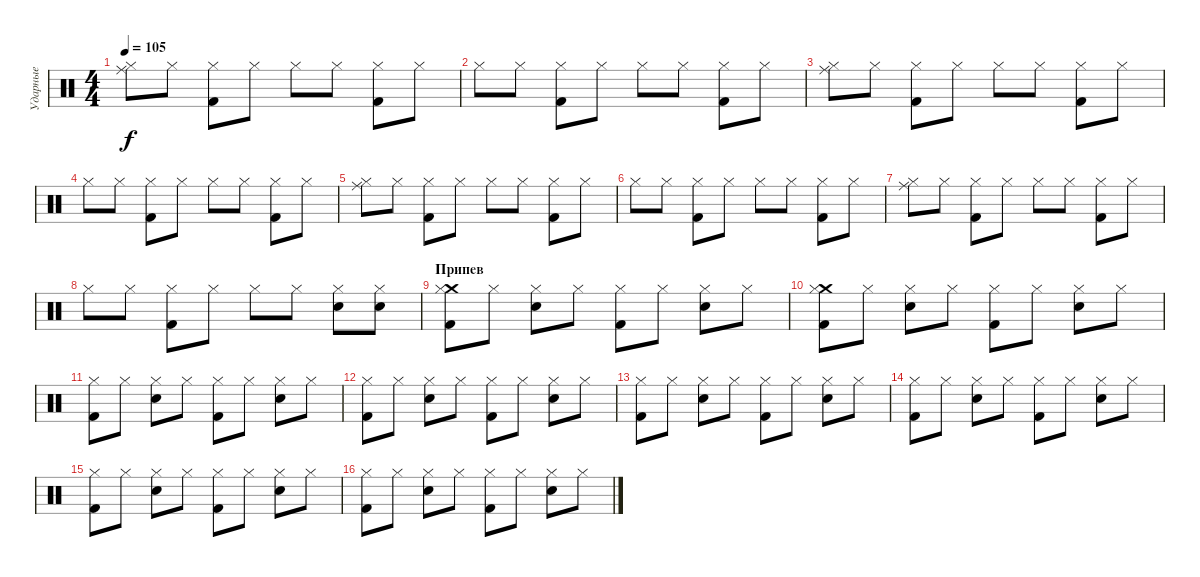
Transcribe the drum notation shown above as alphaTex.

\track ("Ударные" "Ударные") {instrument percussion}
\staff {score}
\articulation defaults
\ts (4 4)
\tempo 105
\clef neutral
\ks c
("Ride (middle)" "Hi-Hat (closed)").8{dy f} "Hi-Hat (closed)".8 ("Hi-Hat (closed)" "Kick (hit) 2").8 "Hi-Hat (closed)".8 "Hi-Hat (closed)".8 "Hi-Hat (closed)".8 ("Hi-Hat (closed)" "Kick (hit) 2").8 "Hi-Hat (closed)".8 |
"Hi-Hat (closed)".8 "Hi-Hat (closed)".8 ("Hi-Hat (closed)" "Kick (hit) 2").8 "Hi-Hat (closed)".8 "Hi-Hat (closed)".8 "Hi-Hat (closed)".8 ("Hi-Hat (closed)" "Kick (hit) 2").8 "Hi-Hat (closed)".8 |
("Ride (middle)" "Hi-Hat (closed)").8 "Hi-Hat (closed)".8 ("Hi-Hat (closed)" "Kick (hit) 2").8 "Hi-Hat (closed)".8 "Hi-Hat (closed)".8 "Hi-Hat (closed)".8 ("Hi-Hat (closed)" "Kick (hit) 2").8 "Hi-Hat (closed)".8 |
"Hi-Hat (closed)".8 "Hi-Hat (closed)".8 ("Hi-Hat (closed)" "Kick (hit) 2").8 "Hi-Hat (closed)".8 "Hi-Hat (closed)".8 "Hi-Hat (closed)".8 ("Hi-Hat (closed)" "Kick (hit) 2").8 "Hi-Hat (closed)".8 |
("Ride (middle)" "Hi-Hat (closed)").8 "Hi-Hat (closed)".8 ("Hi-Hat (closed)" "Kick (hit) 2").8 "Hi-Hat (closed)".8 "Hi-Hat (closed)".8 "Hi-Hat (closed)".8 ("Hi-Hat (closed)" "Kick (hit) 2").8 "Hi-Hat (closed)".8 |
"Hi-Hat (closed)".8 "Hi-Hat (closed)".8 ("Hi-Hat (closed)" "Kick (hit) 2").8 "Hi-Hat (closed)".8 "Hi-Hat (closed)".8 "Hi-Hat (closed)".8 ("Hi-Hat (closed)" "Kick (hit) 2").8 "Hi-Hat (closed)".8 |
("Ride (middle)" "Hi-Hat (closed)").8 "Hi-Hat (closed)".8 ("Hi-Hat (closed)" "Kick (hit) 2").8 "Hi-Hat (closed)".8 "Hi-Hat (closed)".8 "Hi-Hat (closed)".8 ("Hi-Hat (closed)" "Kick (hit) 2").8 "Hi-Hat (closed)".8 |
"Hi-Hat (closed)".8 "Hi-Hat (closed)".8 ("Hi-Hat (closed)" "Kick (hit) 2").8 "Hi-Hat (closed)".8 "Hi-Hat (closed)".8 "Hi-Hat (closed)".8 ("Hi-Hat (closed)" "Electric Snare (hit)").8 ("Hi-Hat (closed)" "Electric Snare (hit)").8 |
\section ("" "Припев")
("Crash medium (hit)" "Hi-Hat (closed)" "Kick (hit) 2").8 "Hi-Hat (closed)".8 ("Hi-Hat (closed)" "Electric Snare (hit)").8 "Hi-Hat (closed)".8 ("Hi-Hat (closed)" "Kick (hit) 2").8 "Hi-Hat (closed)".8 ("Hi-Hat (closed)" "Electric Snare (hit)").8 "Hi-Hat (closed)".8 |
("Crash medium (hit)" "Hi-Hat (closed)" "Kick (hit) 2").8 "Hi-Hat (closed)".8 ("Hi-Hat (closed)" "Electric Snare (hit)").8 "Hi-Hat (closed)".8 ("Hi-Hat (closed)" "Kick (hit) 2").8 "Hi-Hat (closed)".8 ("Hi-Hat (closed)" "Electric Snare (hit)").8 "Hi-Hat (closed)".8 |
("Hi-Hat (closed)" "Kick (hit) 2").8 "Hi-Hat (closed)".8 ("Hi-Hat (closed)" "Electric Snare (hit)").8 "Hi-Hat (closed)".8 ("Hi-Hat (closed)" "Kick (hit) 2").8 "Hi-Hat (closed)".8 ("Hi-Hat (closed)" "Electric Snare (hit)").8 "Hi-Hat (closed)".8 |
("Hi-Hat (closed)" "Kick (hit) 2").8 "Hi-Hat (closed)".8 ("Hi-Hat (closed)" "Electric Snare (hit)").8 "Hi-Hat (closed)".8 ("Hi-Hat (closed)" "Kick (hit) 2").8 "Hi-Hat (closed)".8 ("Hi-Hat (closed)" "Electric Snare (hit)").8 "Hi-Hat (closed)".8 |
("Hi-Hat (closed)" "Kick (hit) 2").8 "Hi-Hat (closed)".8 ("Hi-Hat (closed)" "Electric Snare (hit)").8 "Hi-Hat (closed)".8 ("Hi-Hat (closed)" "Kick (hit) 2").8 "Hi-Hat (closed)".8 ("Hi-Hat (closed)" "Electric Snare (hit)").8 "Hi-Hat (closed)".8 |
("Hi-Hat (closed)" "Kick (hit) 2").8 "Hi-Hat (closed)".8 ("Hi-Hat (closed)" "Electric Snare (hit)").8 "Hi-Hat (closed)".8 ("Hi-Hat (closed)" "Kick (hit) 2").8 "Hi-Hat (closed)".8 ("Hi-Hat (closed)" "Electric Snare (hit)").8 "Hi-Hat (closed)".8 |
("Hi-Hat (closed)" "Kick (hit) 2").8 "Hi-Hat (closed)".8 ("Hi-Hat (closed)" "Electric Snare (hit)").8 "Hi-Hat (closed)".8 ("Hi-Hat (closed)" "Kick (hit) 2").8 "Hi-Hat (closed)".8 ("Hi-Hat (closed)" "Electric Snare (hit)").8 "Hi-Hat (closed)".8 |
("Hi-Hat (closed)" "Kick (hit) 2").8 "Hi-Hat (closed)".8 ("Hi-Hat (closed)" "Electric Snare (hit)").8 "Hi-Hat (closed)".8 ("Hi-Hat (closed)" "Kick (hit) 2").8 "Hi-Hat (closed)".8 ("Hi-Hat (closed)" "Electric Snare (hit)").8 "Hi-Hat (closed)".8
